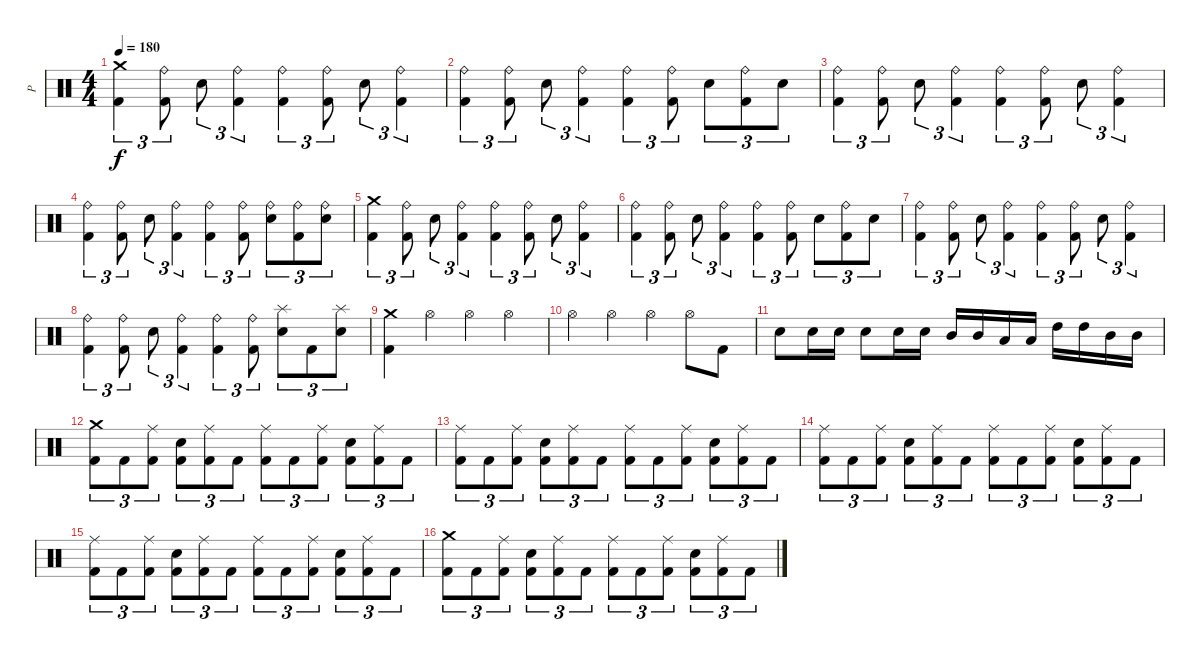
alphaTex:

\track ("P" "P") {instrument percussion}
\staff {score}
\articulation defaults
\ts (4 4)
\tempo 180
\clef neutral
\ks c
("Crash medium (hit)" "Kick (hit) 2").4{tu (3 2) dy f} ("Ride (bell)" "Kick (hit) 2").8{tu (3 2)} "Electric Snare (hit)".8{tu (3 2)} ("Ride (bell)" "Kick (hit) 2").4{tu (3 2)} ("Ride (bell)" "Kick (hit) 2").4{tu (3 2)} ("Ride (bell)" "Kick (hit) 2").8{tu (3 2)} "Electric Snare (hit)".8{tu (3 2)} ("Ride (bell)" "Kick (hit) 2").4{tu (3 2)} |
("Ride (bell)" "Kick (hit) 2").4{tu (3 2)} ("Ride (bell)" "Kick (hit) 2").8{tu (3 2)} "Electric Snare (hit)".8{tu (3 2)} ("Ride (bell)" "Kick (hit) 2").4{tu (3 2)} ("Ride (bell)" "Kick (hit) 2").4{tu (3 2)} ("Ride (bell)" "Kick (hit) 2").8{tu (3 2)} "Electric Snare (hit)".8{tu (3 2)} ("Ride (bell)" "Kick (hit) 2").8{tu (3 2)} "Electric Snare (hit)".8{tu (3 2)} |
("Ride (bell)" "Kick (hit) 2").4{tu (3 2)} ("Ride (bell)" "Kick (hit) 2").8{tu (3 2)} "Electric Snare (hit)".8{tu (3 2)} ("Ride (bell)" "Kick (hit) 2").4{tu (3 2)} ("Ride (bell)" "Kick (hit) 2").4{tu (3 2)} ("Ride (bell)" "Kick (hit) 2").8{tu (3 2)} "Electric Snare (hit)".8{tu (3 2)} ("Ride (bell)" "Kick (hit) 2").4{tu (3 2)} |
("Ride (bell)" "Kick (hit) 2").4{tu (3 2)} ("Ride (bell)" "Kick (hit) 2").8{tu (3 2)} "Electric Snare (hit)".8{tu (3 2)} ("Ride (bell)" "Kick (hit) 2").4{tu (3 2)} ("Ride (bell)" "Kick (hit) 2").4{tu (3 2)} ("Ride (bell)" "Kick (hit) 2").8{tu (3 2)} ("Ride (bell)" "Electric Snare (hit)").8{tu (3 2)} ("Ride (bell)" "Kick (hit) 2").8{tu (3 2)} ("Ride (bell)" "Electric Snare (hit)").8{tu (3 2)} |
("Crash medium (hit)" "Kick (hit) 2").4{tu (3 2)} ("Ride (bell)" "Kick (hit) 2").8{tu (3 2)} "Electric Snare (hit)".8{tu (3 2)} ("Ride (bell)" "Kick (hit) 2").4{tu (3 2)} ("Ride (bell)" "Kick (hit) 2").4{tu (3 2)} ("Ride (bell)" "Kick (hit) 2").8{tu (3 2)} "Electric Snare (hit)".8{tu (3 2)} ("Ride (bell)" "Kick (hit) 2").4{tu (3 2)} |
("Ride (bell)" "Kick (hit) 2").4{tu (3 2)} ("Ride (bell)" "Kick (hit) 2").8{tu (3 2)} "Electric Snare (hit)".8{tu (3 2)} ("Ride (bell)" "Kick (hit) 2").4{tu (3 2)} ("Ride (bell)" "Kick (hit) 2").4{tu (3 2)} ("Ride (bell)" "Kick (hit) 2").8{tu (3 2)} "Electric Snare (hit)".8{tu (3 2)} ("Ride (bell)" "Kick (hit) 2").8{tu (3 2)} "Electric Snare (hit)".8{tu (3 2)} |
("Ride (bell)" "Kick (hit) 2").4{tu (3 2)} ("Ride (bell)" "Kick (hit) 2").8{tu (3 2)} "Electric Snare (hit)".8{tu (3 2)} ("Ride (bell)" "Kick (hit) 2").4{tu (3 2)} ("Ride (bell)" "Kick (hit) 2").4{tu (3 2)} ("Ride (bell)" "Kick (hit) 2").8{tu (3 2)} "Electric Snare (hit)".8{tu (3 2)} ("Ride (bell)" "Kick (hit) 2").4{tu (3 2)} |
("Ride (bell)" "Kick (hit) 2").4{tu (3 2)} ("Ride (bell)" "Kick (hit) 2").8{tu (3 2)} "Electric Snare (hit)".8{tu (3 2)} ("Ride (bell)" "Kick (hit) 2").4{tu (3 2)} ("Ride (bell)" "Kick (hit) 2").4{tu (3 2)} ("Ride (bell)" "Kick (hit) 2").8{tu (3 2)} ("Splash (hit)" "Electric Snare (hit)").8{tu (3 2)} "Kick (hit) 2".8{tu (3 2)} ("Splash (hit)" "Electric Snare (hit)").8{tu (3 2)} |
("Crash medium (hit)" "Kick (hit) 2").4 "Hi-Hat (open)".4 "Hi-Hat (open)".4 "Hi-Hat (open)".4 |
"Hi-Hat (open)".4 "Hi-Hat (open)".4 "Hi-Hat (open)".4 "Hi-Hat (open)".8 "Kick (hit) 2".8 |
"Electric Snare (hit)".8 "Electric Snare (hit)".16 "Electric Snare (hit)".16 "Electric Snare (hit)".8 "Electric Snare (hit)".16 "Electric Snare (hit)".16 "Mid Tom (hit)".16 "Mid Tom (hit)".16 "Low Tom (hit)".16 "Low Tom (hit)".16 "High Tom (hit)".16 "High Tom (hit)".16 "Mid Tom (hit)".16 "Mid Tom (hit)".16 |
("Crash medium (hit)" "Kick (hit) 2").8{tu (3 2)} "Kick (hit) 2".8{tu (3 2)} ("Ride (middle)" "Kick (hit) 2").8{tu (3 2)} ("Electric Snare (hit)" "Kick (hit) 2").8{tu (3 2)} ("Ride (middle)" "Kick (hit) 2").8{tu (3 2)} "Kick (hit) 2".8{tu (3 2)} ("Ride (middle)" "Kick (hit) 2").8{tu (3 2)} "Kick (hit) 2".8{tu (3 2)} ("Ride (middle)" "Kick (hit) 2").8{tu (3 2)} ("Electric Snare (hit)" "Kick (hit) 2").8{tu (3 2)} ("Ride (middle)" "Kick (hit) 2").8{tu (3 2)} "Kick (hit) 2".8{tu (3 2)} |
("Ride (middle)" "Kick (hit) 2").8{tu (3 2)} "Kick (hit) 2".8{tu (3 2)} ("Ride (middle)" "Kick (hit) 2").8{tu (3 2)} ("Electric Snare (hit)" "Kick (hit) 2").8{tu (3 2)} ("Ride (middle)" "Kick (hit) 2").8{tu (3 2)} "Kick (hit) 2".8{tu (3 2)} ("Ride (middle)" "Kick (hit) 2").8{tu (3 2)} "Kick (hit) 2".8{tu (3 2)} ("Ride (middle)" "Kick (hit) 2").8{tu (3 2)} ("Electric Snare (hit)" "Kick (hit) 2").8{tu (3 2)} ("Ride (middle)" "Kick (hit) 2").8{tu (3 2)} "Kick (hit) 2".8{tu (3 2)} |
("Ride (middle)" "Kick (hit) 2").8{tu (3 2)} "Kick (hit) 2".8{tu (3 2)} ("Ride (middle)" "Kick (hit) 2").8{tu (3 2)} ("Electric Snare (hit)" "Kick (hit) 2").8{tu (3 2)} ("Ride (middle)" "Kick (hit) 2").8{tu (3 2)} "Kick (hit) 2".8{tu (3 2)} ("Ride (middle)" "Kick (hit) 2").8{tu (3 2)} "Kick (hit) 2".8{tu (3 2)} ("Ride (middle)" "Kick (hit) 2").8{tu (3 2)} ("Electric Snare (hit)" "Kick (hit) 2").8{tu (3 2)} ("Ride (middle)" "Kick (hit) 2").8{tu (3 2)} "Kick (hit) 2".8{tu (3 2)} |
("Ride (middle)" "Kick (hit) 2").8{tu (3 2)} "Kick (hit) 2".8{tu (3 2)} ("Ride (middle)" "Kick (hit) 2").8{tu (3 2)} ("Electric Snare (hit)" "Kick (hit) 2").8{tu (3 2)} ("Ride (middle)" "Kick (hit) 2").8{tu (3 2)} "Kick (hit) 2".8{tu (3 2)} ("Ride (middle)" "Kick (hit) 2").8{tu (3 2)} "Kick (hit) 2".8{tu (3 2)} ("Ride (middle)" "Kick (hit) 2").8{tu (3 2)} ("Electric Snare (hit)" "Kick (hit) 2").8{tu (3 2)} ("Ride (middle)" "Kick (hit) 2").8{tu (3 2)} "Kick (hit) 2".8{tu (3 2)} |
("Crash medium (hit)" "Kick (hit) 2").8{tu (3 2)} "Kick (hit) 2".8{tu (3 2)} ("Ride (middle)" "Kick (hit) 2").8{tu (3 2)} ("Electric Snare (hit)" "Kick (hit) 2").8{tu (3 2)} ("Ride (middle)" "Kick (hit) 2").8{tu (3 2)} "Kick (hit) 2".8{tu (3 2)} ("Ride (middle)" "Kick (hit) 2").8{tu (3 2)} "Kick (hit) 2".8{tu (3 2)} ("Ride (middle)" "Kick (hit) 2").8{tu (3 2)} ("Electric Snare (hit)" "Kick (hit) 2").8{tu (3 2)} ("Ride (middle)" "Kick (hit) 2").8{tu (3 2)} "Kick (hit) 2".8{tu (3 2)}
